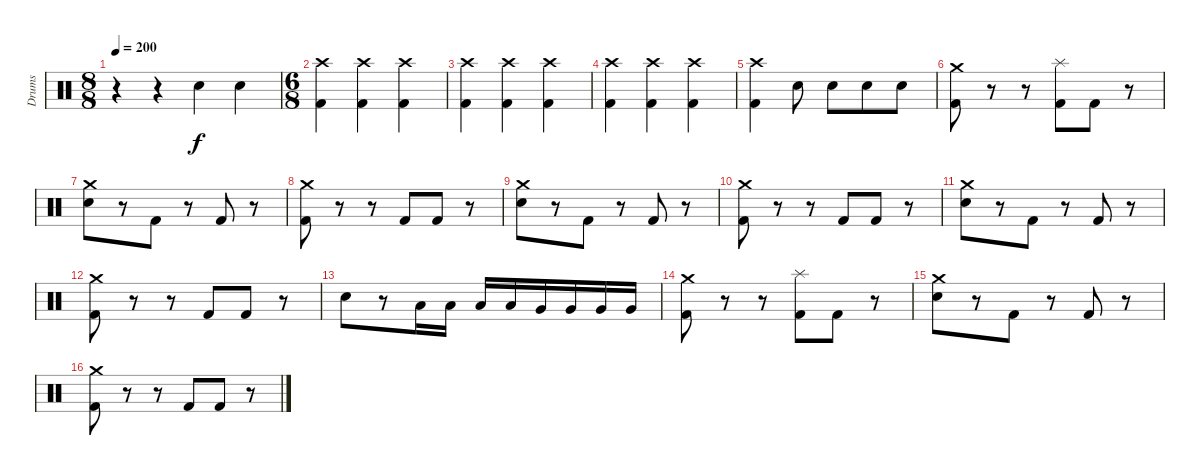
\track ("Drums" "Drums") {instrument percussion}
\staff {score}
\articulation defaults
\ts (8 8)
\tempo 200
\clef neutral
\ks c
r.4{dy f} r.4 "Electric Snare (hit)".4 "Electric Snare (hit)".4 |
\ts (6 8)
("Crash high (hit)" "Kick (hit) 2").4 ("Crash high (hit)" "Kick (hit) 2").4 ("Crash high (hit)" "Kick (hit) 2").4 |
("Crash high (hit)" "Kick (hit) 2").4 ("Crash high (hit)" "Kick (hit) 2").4 ("Crash high (hit)" "Kick (hit) 2").4 |
("Crash high (hit)" "Kick (hit) 2").4 ("Crash high (hit)" "Kick (hit) 2").4 ("Crash high (hit)" "Kick (hit) 2").4 |
("Crash high (hit)" "Kick (hit) 2").4 "Electric Snare (hit)".8 "Electric Snare (hit)".8 "Electric Snare (hit)".8 "Electric Snare (hit)".8 |
("Crash medium (hit)" "Kick (hit) 2").8 r.8 r.8 ("Splash (hit)" "Kick (hit) 2").8 "Kick (hit) 2".8 r.8 |
("Crash medium (hit)" "Electric Snare (hit)").8 r.8 "Kick (hit) 2".8 r.8 "Kick (hit) 2".8 r.8 |
("Crash medium (hit)" "Kick (hit) 2").8 r.8 r.8 "Kick (hit) 2".8 "Kick (hit) 2".8 r.8 |
("Crash medium (hit)" "Electric Snare (hit)").8 r.8 "Kick (hit) 2".8 r.8 "Kick (hit) 2".8 r.8 |
("Crash medium (hit)" "Kick (hit) 2").8 r.8 r.8 "Kick (hit) 2".8 "Kick (hit) 2".8 r.8 |
("Crash medium (hit)" "Electric Snare (hit)").8 r.8 "Kick (hit) 2".8 r.8 "Kick (hit) 2".8 r.8 |
("Crash medium (hit)" "Kick (hit) 2").8 r.8 r.8 "Kick (hit) 2".8 "Kick (hit) 2".8 r.8 |
"Electric Snare (hit)".8 r.8 "Low Tom (hit)".16 "Low Tom (hit)".16 "Low Tom (hit)".16 "Low Tom (hit)".16 "Very Low Tom (hit)".16 "Very Low Tom (hit)".16 "Very Low Tom (hit)".16 "Very Low Tom (hit)".16 |
("Crash medium (hit)" "Kick (hit) 2").8 r.8 r.8 ("Splash (hit)" "Kick (hit) 2").8 "Kick (hit) 2".8 r.8 |
("Crash medium (hit)" "Electric Snare (hit)").8 r.8 "Kick (hit) 2".8 r.8 "Kick (hit) 2".8 r.8 |
("Crash medium (hit)" "Kick (hit) 2").8 r.8 r.8 "Kick (hit) 2".8 "Kick (hit) 2".8 r.8
